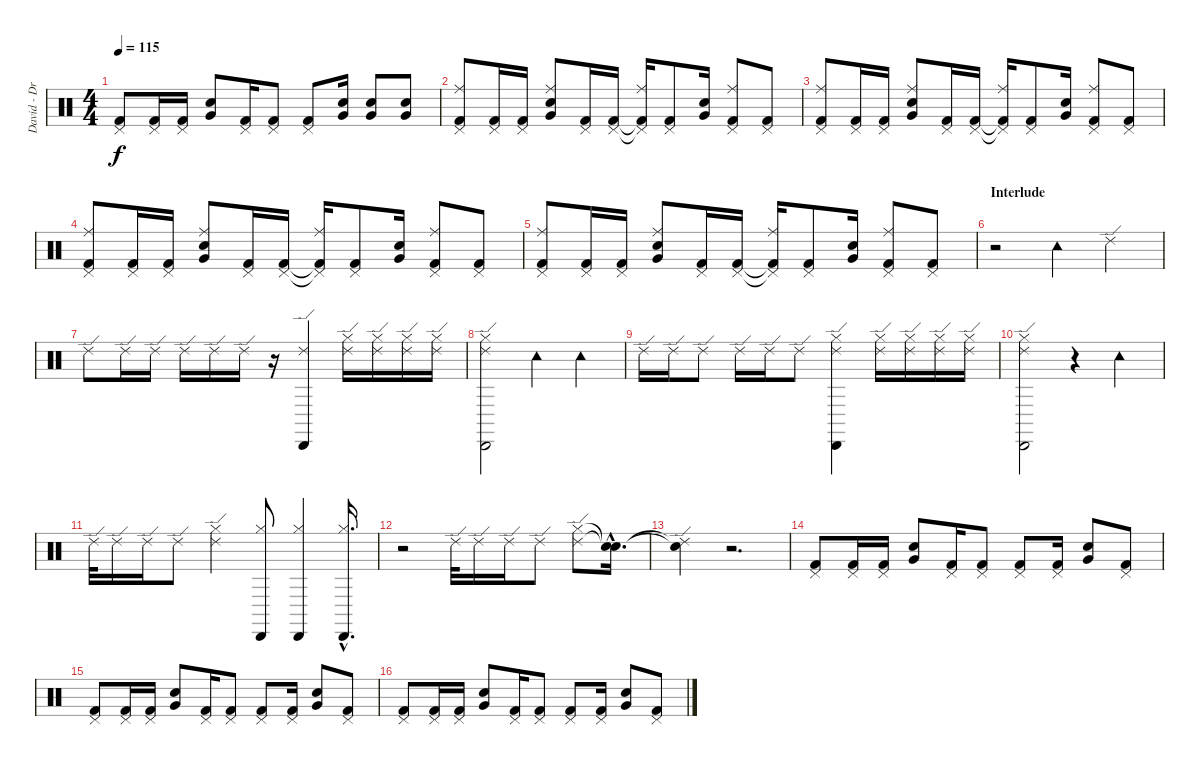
\track ("David - Drums" "David - Dr") {instrument percussion}
\staff {score}
\articulation defaults
\ts (4 4)
\tempo 115
\clef neutral
\ks c
("Kick (hit) 2" "Pedal Hi-Hat (hit)").8{dy f} ("Kick (hit) 2" "Pedal Hi-Hat (hit)").16 ("Kick (hit) 2" "Pedal Hi-Hat (hit)").16 ("Snare (hit) 2" "Very Low Tom (hit)").8 ("Kick (hit) 2" "Pedal Hi-Hat (hit)").16 ("Kick (hit) 2" "Pedal Hi-Hat (hit)").8 ("Kick (hit) 2" "Pedal Hi-Hat (hit)").8 ("Snare (hit) 2" "Very Low Tom (hit)").16 ("Snare (hit) 2" "Very Low Tom (hit)").8 ("Snare (hit) 2" "Very Low Tom (hit)").8 |
("Kick (hit) 2" "Pedal Hi-Hat (hit)" "Ride (middle)").8 ("Kick (hit) 2" "Pedal Hi-Hat (hit)").16 ("Kick (hit) 2" "Pedal Hi-Hat (hit)").16 ("Snare (hit) 2" "Very Low Tom (hit)" "Ride (middle)").8 ("Kick (hit) 2" "Pedal Hi-Hat (hit)").16 ("Kick (hit) 2" "Pedal Hi-Hat (hit)").16 ("Kick (hit) 2"{t} "Pedal Hi-Hat (hit)"{t} "Ride (middle)").16 ("Kick (hit) 2" "Pedal Hi-Hat (hit)").8 ("Snare (hit) 2" "Very Low Tom (hit)").16 ("Kick (hit) 2" "Pedal Hi-Hat (hit)" "Ride (middle)").8 ("Kick (hit) 2" "Pedal Hi-Hat (hit)").8 |
("Kick (hit) 2" "Pedal Hi-Hat (hit)" "Ride (middle)").8 ("Kick (hit) 2" "Pedal Hi-Hat (hit)").16 ("Kick (hit) 2" "Pedal Hi-Hat (hit)").16 ("Snare (hit) 2" "Very Low Tom (hit)" "Ride (middle)").8 ("Kick (hit) 2" "Pedal Hi-Hat (hit)").16 ("Kick (hit) 2" "Pedal Hi-Hat (hit)").16 ("Kick (hit) 2"{t} "Pedal Hi-Hat (hit)"{t} "Ride (middle)").16 ("Kick (hit) 2" "Pedal Hi-Hat (hit)").8 ("Snare (hit) 2" "Very Low Tom (hit)").16 ("Kick (hit) 2" "Pedal Hi-Hat (hit)" "Ride (middle)").8 ("Kick (hit) 2" "Pedal Hi-Hat (hit)").8 |
("Kick (hit) 2" "Pedal Hi-Hat (hit)" "Ride (middle)").8 ("Kick (hit) 2" "Pedal Hi-Hat (hit)").16 ("Kick (hit) 2" "Pedal Hi-Hat (hit)").16 ("Snare (hit) 2" "Very Low Tom (hit)" "Ride (middle)").8 ("Kick (hit) 2" "Pedal Hi-Hat (hit)").16 ("Kick (hit) 2" "Pedal Hi-Hat (hit)").16 ("Kick (hit) 2"{t} "Pedal Hi-Hat (hit)"{t} "Ride (middle)").16 ("Kick (hit) 2" "Pedal Hi-Hat (hit)").8 ("Snare (hit) 2" "Very Low Tom (hit)").16 ("Kick (hit) 2" "Pedal Hi-Hat (hit)" "Ride (middle)").8 ("Kick (hit) 2" "Pedal Hi-Hat (hit)").8 |
("Kick (hit) 2" "Pedal Hi-Hat (hit)" "Ride (middle)").8 ("Kick (hit) 2" "Pedal Hi-Hat (hit)").16 ("Kick (hit) 2" "Pedal Hi-Hat (hit)").16 ("Snare (hit) 2" "Very Low Tom (hit)" "Ride (middle)").8 ("Kick (hit) 2" "Pedal Hi-Hat (hit)").16 ("Kick (hit) 2" "Pedal Hi-Hat (hit)").16 ("Kick (hit) 2"{t} "Pedal Hi-Hat (hit)"{t} "Ride (middle)").16 ("Kick (hit) 2" "Pedal Hi-Hat (hit)").8 ("Snare (hit) 2" "Very Low Tom (hit)").16 ("Kick (hit) 2" "Pedal Hi-Hat (hit)" "Ride (middle)").8 ("Kick (hit) 2" "Pedal Hi-Hat (hit)").8 |
\section ("" "Interlude")
r.2{volume 14} "Tambourine (hit)".4 "Ride (edge) 2".4 |
"Ride (edge) 2".8 "Ride (edge) 2".16 "Ride (edge) 2".16 "Ride (edge) 2".16 "Ride (edge) 2".16 "Ride (edge) 2".16 r.16 ("Ride (edge) 2" "Cabasa (hit)").4 ("Hi-Hat (closed)" "Ride (edge) 2").16 ("Hi-Hat (closed)" "Ride (edge) 2").16 ("Hi-Hat (closed)" "Ride (edge) 2").16 ("Hi-Hat (closed)" "Ride (edge) 2").16 |
("Hi-Hat (closed)" "Ride (edge) 2" "Cabasa (hit)").2 "Tambourine (hit)".4 "Tambourine (hit)".4 |
"Ride (edge) 2".16 "Ride (edge) 2".16 "Ride (edge) 2".8 "Ride (edge) 2".16 "Ride (edge) 2".16 "Ride (edge) 2".8 ("Hi-Hat (closed)" "Ride (edge) 2" "Cabasa (hit)").4 ("Hi-Hat (closed)" "Ride (edge) 2").16 ("Hi-Hat (closed)" "Ride (edge) 2").16 ("Hi-Hat (closed)" "Ride (edge) 2").16 ("Hi-Hat (closed)" "Ride (edge) 2").16 |
("Hi-Hat (closed)" "Ride (edge) 2" "Cabasa (hit)").2 r.4 "Tambourine (hit)".4 |
"Ride (edge) 2".32 "Ride (edge) 2".16 "Ride (edge) 2".16 "Ride (edge) 2".8 ("Hi-Hat (closed)" "Ride (edge) 2").4 ("Hi-Hat (closed)" "Cabasa (hit)").8 ("Hi-Hat (closed)" "Cabasa (hit)").4 ("Hi-Hat (closed)"{hac} "Cabasa (hit)"{hac}).16{d} |
r.2 "Ride (edge) 2".32 "Ride (edge) 2".16 "Ride (edge) 2".16 "Ride (edge) 2".8 ("Hi-Hat (closed)" "Ride (edge) 2").8 ("Snare (hit)"{hac t} "Snare (hit)"{hac t}).16{d} |
("Snare (hit)"{t} "Ride (edge) 2"{t}).4 r.2{d} |
\section ("" "")
("Kick (hit) 2" "Pedal Hi-Hat (hit)").8{volume 12} ("Kick (hit) 2" "Pedal Hi-Hat (hit)").16 ("Kick (hit) 2" "Pedal Hi-Hat (hit)").16 ("Snare (hit) 2" "Very Low Tom (hit)").8 ("Kick (hit) 2" "Pedal Hi-Hat (hit)").16 ("Kick (hit) 2" "Pedal Hi-Hat (hit)").8 ("Kick (hit) 2" "Pedal Hi-Hat (hit)").8 ("Kick (hit) 2" "Pedal Hi-Hat (hit)").16 ("Snare (hit) 2" "Very Low Tom (hit)").8 ("Kick (hit) 2" "Pedal Hi-Hat (hit)").8 |
("Kick (hit) 2" "Pedal Hi-Hat (hit)").8 ("Kick (hit) 2" "Pedal Hi-Hat (hit)").16 ("Kick (hit) 2" "Pedal Hi-Hat (hit)").16 ("Snare (hit) 2" "Very Low Tom (hit)").8 ("Kick (hit) 2" "Pedal Hi-Hat (hit)").16 ("Kick (hit) 2" "Pedal Hi-Hat (hit)").8 ("Kick (hit) 2" "Pedal Hi-Hat (hit)").8 ("Kick (hit) 2" "Pedal Hi-Hat (hit)").16 ("Snare (hit) 2" "Very Low Tom (hit)").8 ("Kick (hit) 2" "Pedal Hi-Hat (hit)").8 |
("Kick (hit) 2" "Pedal Hi-Hat (hit)").8 ("Kick (hit) 2" "Pedal Hi-Hat (hit)").16 ("Kick (hit) 2" "Pedal Hi-Hat (hit)").16 ("Snare (hit) 2" "Very Low Tom (hit)").8 ("Kick (hit) 2" "Pedal Hi-Hat (hit)").16 ("Kick (hit) 2" "Pedal Hi-Hat (hit)").8 ("Kick (hit) 2" "Pedal Hi-Hat (hit)").8 ("Kick (hit) 2" "Pedal Hi-Hat (hit)").16 ("Snare (hit) 2" "Very Low Tom (hit)").8 ("Kick (hit) 2" "Pedal Hi-Hat (hit)").8
